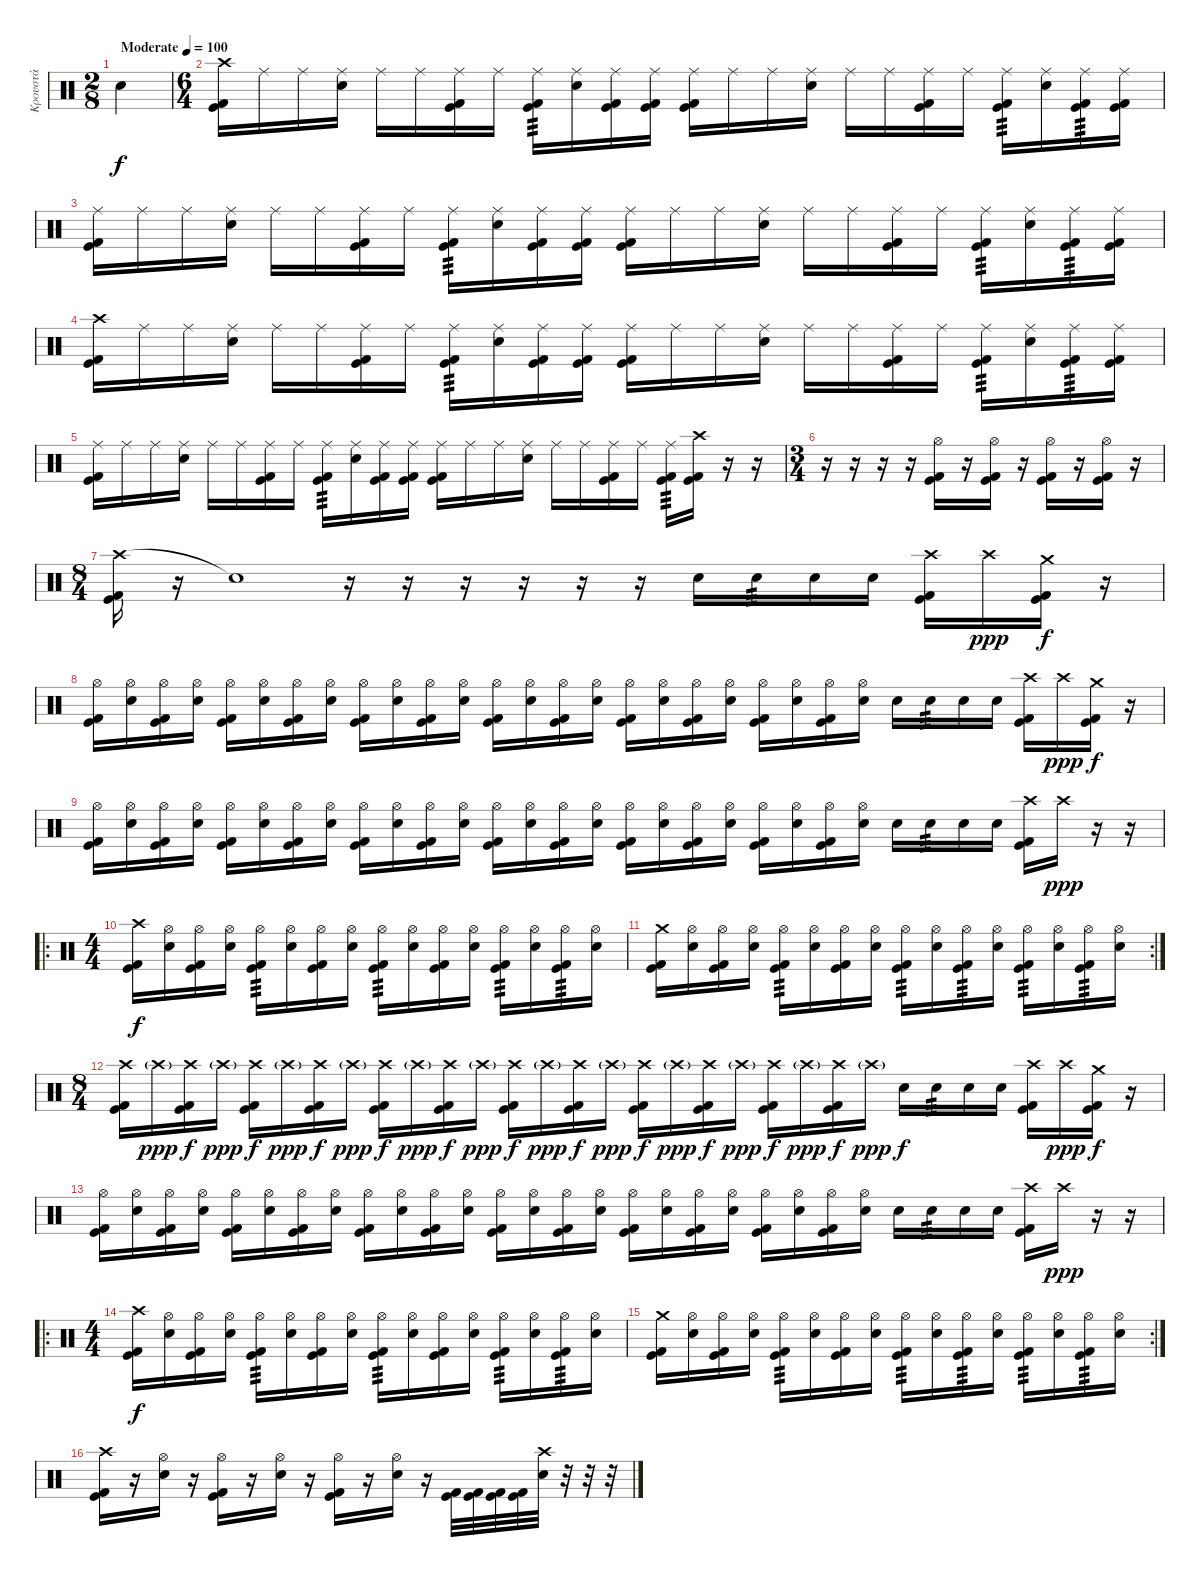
\track ("Κρουστά" "Κρουστά") {instrument percussion}
\staff {score}
\articulation defaults
\ts (2 8)
\tempo (100 "Moderate")
\clef neutral
\ks c "Snare (hit) 2".4{dy f}
|
\ts (6 4)
("Crash high (hit)" "Kick (hit)" "Kick (hit) 2").16 "Ride (middle)".16 "Ride (middle)".16 ("Ride (middle)" "Snare (hit) 2").16 "Ride (middle)".16 "Ride (middle)".16 ("Ride (middle)" "Kick (hit)" "Kick (hit) 2").16 "Ride (middle)".16 ("Ride (middle)" "Kick (hit)" "Kick (hit) 2").16{tp 3} ("Ride (middle)" "Snare (hit) 2").16 ("Ride (middle)" "Kick (hit)" "Kick (hit) 2").16 ("Ride (middle)" "Kick (hit)" "Kick (hit) 2").16 ("Ride (middle)" "Kick (hit)" "Kick (hit) 2").16 "Ride (middle)".16 "Ride (middle)".16 ("Ride (middle)" "Snare (hit) 2").16 "Ride (middle)".16 "Ride (middle)".16 ("Ride (middle)" "Kick (hit)" "Kick (hit) 2").16 "Ride (middle)".16 ("Ride (middle)" "Kick (hit)" "Kick (hit) 2").16{tp 3} ("Ride (middle)" "Snare (hit) 2").16 ("Ride (middle)" "Kick (hit)" "Kick (hit) 2").16{tp 3} ("Ride (middle)" "Kick (hit)" "Kick (hit) 2").16 |
("Ride (middle)" "Kick (hit)" "Kick (hit) 2").16 "Ride (middle)".16 "Ride (middle)".16 ("Ride (middle)" "Snare (hit) 2").16 "Ride (middle)".16 "Ride (middle)".16 ("Ride (middle)" "Kick (hit)" "Kick (hit) 2").16 "Ride (middle)".16 ("Ride (middle)" "Kick (hit)" "Kick (hit) 2").16{tp 3} ("Ride (middle)" "Snare (hit) 2").16 ("Ride (middle)" "Kick (hit)" "Kick (hit) 2").16 ("Ride (middle)" "Kick (hit)" "Kick (hit) 2").16 ("Ride (middle)" "Kick (hit)" "Kick (hit) 2").16 "Ride (middle)".16 "Ride (middle)".16 ("Ride (middle)" "Snare (hit) 2").16 "Ride (middle)".16 "Ride (middle)".16 ("Ride (middle)" "Kick (hit)" "Kick (hit) 2").16 "Ride (middle)".16 ("Ride (middle)" "Kick (hit)" "Kick (hit) 2").16{tp 3} ("Ride (middle)" "Snare (hit) 2").16 ("Ride (middle)" "Kick (hit)" "Kick (hit) 2").16{tp 3} ("Ride (middle)" "Kick (hit)" "Kick (hit) 2").16 |
("Crash high (hit)" "Kick (hit)" "Kick (hit) 2").16 "Ride (middle)".16 "Ride (middle)".16 ("Ride (middle)" "Snare (hit) 2").16 "Ride (middle)".16 "Ride (middle)".16 ("Ride (middle)" "Kick (hit)" "Kick (hit) 2").16 "Ride (middle)".16 ("Ride (middle)" "Kick (hit)" "Kick (hit) 2").16{tp 3} ("Ride (middle)" "Snare (hit) 2").16 ("Ride (middle)" "Kick (hit)" "Kick (hit) 2").16 ("Ride (middle)" "Kick (hit)" "Kick (hit) 2").16 ("Ride (middle)" "Kick (hit)" "Kick (hit) 2").16 "Ride (middle)".16 "Ride (middle)".16 ("Ride (middle)" "Snare (hit) 2").16 "Ride (middle)".16 "Ride (middle)".16 ("Ride (middle)" "Kick (hit)" "Kick (hit) 2").16 "Ride (middle)".16 ("Ride (middle)" "Kick (hit)" "Kick (hit) 2").16{tp 3} ("Ride (middle)" "Snare (hit) 2").16 ("Ride (middle)" "Kick (hit)" "Kick (hit) 2").16{tp 3} ("Ride (middle)" "Kick (hit)" "Kick (hit) 2").16 |
("Ride (middle)" "Kick (hit)" "Kick (hit) 2").16 "Ride (middle)".16 "Ride (middle)".16 ("Ride (middle)" "Snare (hit) 2").16 "Ride (middle)".16 "Ride (middle)".16 ("Ride (middle)" "Kick (hit)" "Kick (hit) 2").16 "Ride (middle)".16 ("Ride (middle)" "Kick (hit)" "Kick (hit) 2").16{tp 3} ("Ride (middle)" "Snare (hit) 2").16 ("Ride (middle)" "Kick (hit)" "Kick (hit) 2").16 ("Ride (middle)" "Kick (hit)" "Kick (hit) 2").16 ("Ride (middle)" "Kick (hit)" "Kick (hit) 2").16 "Ride (middle)".16 "Ride (middle)".16 ("Ride (middle)" "Snare (hit) 2").16 "Ride (middle)".16 "Ride (middle)".16 ("Ride (middle)" "Kick (hit)" "Kick (hit) 2").16 "Ride (middle)".16 ("Ride (middle)" "Kick (hit)" "Kick (hit) 2").16{tp 3} ("Crash high (hit)" "Kick (hit)" "Kick (hit) 2").16 r.16 r.16 |
\ts (3 4)
r.16 r.16 r.16 r.16 ("Hi-Hat (open)" "Kick (hit)" "Kick (hit) 2").16 r.16 ("Hi-Hat (open)" "Kick (hit)" "Kick (hit) 2").16 r.16 ("Hi-Hat (open)" "Kick (hit)" "Kick (hit) 2").16 r.16 ("Hi-Hat (open)" "Kick (hit)" "Kick (hit) 2").16 r.16 |
\ts (8 4)
("Crash high (hit)" "Kick (hit)" "Kick (hit) 2").16 r.16 "Snare (hit)"{t}.1 r.16 r.16 r.16 r.16 r.16 r.16 "Snare (hit) 2".16 "Snare (hit) 2".16{tp 3} "Snare (hit) 2".16 "Snare (hit) 2".16 ("Crash high (hit)" "Kick (hit)" "Kick (hit) 2").16 "Crash high (hit)".16{dy ppp} ("Crash medium (hit)" "Kick (hit)" "Kick (hit) 2").16{dy f} r.16 |
("Hi-Hat (open)" "Kick (hit)" "Kick (hit) 2").16 ("Hi-Hat (open)" "Snare (hit) 2").16 ("Hi-Hat (open)" "Kick (hit)" "Kick (hit) 2").16 ("Hi-Hat (open)" "Snare (hit) 2").16 ("Hi-Hat (open)" "Kick (hit)" "Kick (hit) 2").16 ("Hi-Hat (open)" "Snare (hit) 2").16 ("Hi-Hat (open)" "Kick (hit)" "Kick (hit) 2").16 ("Hi-Hat (open)" "Snare (hit) 2").16 ("Hi-Hat (open)" "Kick (hit)" "Kick (hit) 2").16 ("Hi-Hat (open)" "Snare (hit) 2").16 ("Hi-Hat (open)" "Kick (hit)" "Kick (hit) 2").16 ("Hi-Hat (open)" "Snare (hit) 2").16 ("Hi-Hat (open)" "Kick (hit)" "Kick (hit) 2").16 ("Hi-Hat (open)" "Snare (hit) 2").16 ("Hi-Hat (open)" "Kick (hit)" "Kick (hit) 2").16 ("Hi-Hat (open)" "Snare (hit) 2").16 ("Hi-Hat (open)" "Kick (hit)" "Kick (hit) 2").16 ("Hi-Hat (open)" "Snare (hit) 2").16 ("Hi-Hat (open)" "Kick (hit)" "Kick (hit) 2").16 ("Hi-Hat (open)" "Snare (hit) 2").16 ("Hi-Hat (open)" "Kick (hit)" "Kick (hit) 2").16 ("Hi-Hat (open)" "Snare (hit) 2").16 ("Hi-Hat (open)" "Kick (hit)" "Kick (hit) 2").16 ("Hi-Hat (open)" "Snare (hit) 2").16 "Snare (hit) 2".16 "Snare (hit) 2".16{tp 3} "Snare (hit) 2".16 "Snare (hit) 2".16 ("Crash high (hit)" "Kick (hit)" "Kick (hit) 2").16 "Crash high (hit)".16{dy ppp} ("Crash medium (hit)" "Kick (hit)" "Kick (hit) 2").16{dy f} r.16 |
("Hi-Hat (open)" "Kick (hit)" "Kick (hit) 2").16 ("Hi-Hat (open)" "Snare (hit) 2").16 ("Hi-Hat (open)" "Kick (hit)" "Kick (hit) 2").16 ("Hi-Hat (open)" "Snare (hit) 2").16 ("Hi-Hat (open)" "Kick (hit)" "Kick (hit) 2").16 ("Hi-Hat (open)" "Snare (hit) 2").16 ("Hi-Hat (open)" "Kick (hit)" "Kick (hit) 2").16 ("Hi-Hat (open)" "Snare (hit) 2").16 ("Hi-Hat (open)" "Kick (hit)" "Kick (hit) 2").16 ("Hi-Hat (open)" "Snare (hit) 2").16 ("Hi-Hat (open)" "Kick (hit)" "Kick (hit) 2").16 ("Hi-Hat (open)" "Snare (hit) 2").16 ("Hi-Hat (open)" "Kick (hit)" "Kick (hit) 2").16 ("Hi-Hat (open)" "Snare (hit) 2").16 ("Hi-Hat (open)" "Kick (hit)" "Kick (hit) 2").16 ("Hi-Hat (open)" "Snare (hit) 2").16 ("Hi-Hat (open)" "Kick (hit)" "Kick (hit) 2").16 ("Hi-Hat (open)" "Snare (hit) 2").16 ("Hi-Hat (open)" "Kick (hit)" "Kick (hit) 2").16 ("Hi-Hat (open)" "Snare (hit) 2").16 ("Hi-Hat (open)" "Kick (hit)" "Kick (hit) 2").16 ("Hi-Hat (open)" "Snare (hit) 2").16 ("Hi-Hat (open)" "Kick (hit)" "Kick (hit) 2").16 ("Hi-Hat (open)" "Snare (hit) 2").16 "Snare (hit) 2".16 "Snare (hit) 2".16{tp 3} "Snare (hit) 2".16 "Snare (hit) 2".16 ("Crash high (hit)" "Kick (hit)" "Kick (hit) 2").16 "Crash high (hit)".16{dy ppp} r.16 r.16 |
\ro
\ts (4 4)
("Crash high (hit)" "Kick (hit)" "Kick (hit) 2").16{dy f} ("Hi-Hat (open)" "Snare (hit) 2").16 ("Hi-Hat (open)" "Kick (hit)" "Kick (hit) 2").16 ("Hi-Hat (open)" "Snare (hit) 2").16 ("Hi-Hat (open)" "Kick (hit)" "Kick (hit) 2").16{tp 3} ("Hi-Hat (open)" "Snare (hit) 2").16 ("Hi-Hat (open)" "Kick (hit)" "Kick (hit) 2").16 ("Hi-Hat (open)" "Snare (hit) 2").16 ("Hi-Hat (open)" "Kick (hit)" "Kick (hit) 2").16{tp 3} ("Hi-Hat (open)" "Snare (hit) 2").16 ("Hi-Hat (open)" "Kick (hit)" "Kick (hit) 2").16 ("Hi-Hat (open)" "Snare (hit) 2").16 ("Hi-Hat (open)" "Kick (hit)" "Kick (hit) 2").16{tp 3} ("Hi-Hat (open)" "Snare (hit) 2").16 ("Hi-Hat (open)" "Kick (hit)" "Kick (hit) 2").16{tp 3} ("Hi-Hat (open)" "Snare (hit) 2").16 |
\rc 2
("Crash medium (hit)" "Kick (hit)" "Kick (hit) 2").16 ("Hi-Hat (open)" "Snare (hit) 2").16 ("Hi-Hat (open)" "Kick (hit)" "Kick (hit) 2").16 ("Hi-Hat (open)" "Snare (hit) 2").16 ("Hi-Hat (open)" "Kick (hit)" "Kick (hit) 2").16{tp 3} ("Hi-Hat (open)" "Snare (hit) 2").16 ("Hi-Hat (open)" "Kick (hit)" "Kick (hit) 2").16 ("Hi-Hat (open)" "Snare (hit) 2").16 ("Hi-Hat (open)" "Kick (hit)" "Kick (hit) 2").16{tp 3} ("Hi-Hat (open)" "Snare (hit) 2").16 ("Hi-Hat (open)" "Kick (hit)" "Kick (hit) 2").16{tp 3} ("Hi-Hat (open)" "Snare (hit) 2").16 ("Hi-Hat (open)" "Kick (hit)" "Kick (hit) 2").16{tp 3} ("Hi-Hat (open)" "Snare (hit) 2").16 ("Hi-Hat (open)" "Kick (hit)" "Kick (hit) 2").16{tp 3} ("Hi-Hat (open)" "Snare (hit) 2").16 |
\ts (8 4)
("Crash high (hit)" "Kick (hit)" "Kick (hit) 2").16 "Crash high (hit)"{g}.16{dy ppp} ("Crash high (hit)" "Kick (hit)" "Kick (hit) 2").16{dy f} "Crash high (hit)"{g}.16{dy ppp} ("Crash high (hit)" "Kick (hit)" "Kick (hit) 2").16{dy f} "Crash high (hit)"{g}.16{dy ppp} ("Crash high (hit)" "Kick (hit)" "Kick (hit) 2").16{dy f} "Crash high (hit)"{g}.16{dy ppp} ("Crash high (hit)" "Kick (hit)" "Kick (hit) 2").16{dy f} "Crash high (hit)"{g}.16{dy ppp} ("Crash high (hit)" "Kick (hit)" "Kick (hit) 2").16{dy f} "Crash high (hit)"{g}.16{dy ppp} ("Crash high (hit)" "Kick (hit)" "Kick (hit) 2").16{dy f} "Crash high (hit)"{g}.16{dy ppp} ("Crash high (hit)" "Kick (hit)" "Kick (hit) 2").16{dy f} "Crash high (hit)"{g}.16{dy ppp} ("Crash high (hit)" "Kick (hit)" "Kick (hit) 2").16{dy f} "Crash high (hit)"{g}.16{dy ppp} ("Crash high (hit)" "Kick (hit)" "Kick (hit) 2").16{dy f} "Crash high (hit)"{g}.16{dy ppp} ("Crash high (hit)" "Kick (hit)" "Kick (hit) 2").16{dy f} "Crash high (hit)"{g}.16{dy ppp} ("Crash high (hit)" "Kick (hit)" "Kick (hit) 2").16{dy f} "Crash high (hit)"{g}.16{dy ppp} "Snare (hit) 2".16{dy f} "Snare (hit) 2".16{tp 3} "Snare (hit) 2".16 "Snare (hit) 2".16 ("Crash high (hit)" "Kick (hit)" "Kick (hit) 2").16 "Crash high (hit)".16{dy ppp} ("Crash medium (hit)" "Kick (hit)" "Kick (hit) 2").16{dy f} r.16 |
("Hi-Hat (open)" "Kick (hit)" "Kick (hit) 2").16 ("Hi-Hat (open)" "Snare (hit) 2").16 ("Hi-Hat (open)" "Kick (hit)" "Kick (hit) 2").16 ("Hi-Hat (open)" "Snare (hit) 2").16 ("Hi-Hat (open)" "Kick (hit)" "Kick (hit) 2").16 ("Hi-Hat (open)" "Snare (hit) 2").16 ("Hi-Hat (open)" "Kick (hit)" "Kick (hit) 2").16 ("Hi-Hat (open)" "Snare (hit) 2").16 ("Hi-Hat (open)" "Kick (hit)" "Kick (hit) 2").16 ("Hi-Hat (open)" "Snare (hit) 2").16 ("Hi-Hat (open)" "Kick (hit)" "Kick (hit) 2").16 ("Hi-Hat (open)" "Snare (hit) 2").16 ("Hi-Hat (open)" "Kick (hit)" "Kick (hit) 2").16 ("Hi-Hat (open)" "Snare (hit) 2").16 ("Hi-Hat (open)" "Kick (hit)" "Kick (hit) 2").16 ("Hi-Hat (open)" "Snare (hit) 2").16 ("Hi-Hat (open)" "Kick (hit)" "Kick (hit) 2").16 ("Hi-Hat (open)" "Snare (hit) 2").16 ("Hi-Hat (open)" "Kick (hit)" "Kick (hit) 2").16 ("Hi-Hat (open)" "Snare (hit) 2").16 ("Hi-Hat (open)" "Kick (hit)" "Kick (hit) 2").16 ("Hi-Hat (open)" "Snare (hit) 2").16 ("Hi-Hat (open)" "Kick (hit)" "Kick (hit) 2").16 ("Hi-Hat (open)" "Snare (hit) 2").16 "Snare (hit) 2".16 "Snare (hit) 2".16{tp 3} "Snare (hit) 2".16 "Snare (hit) 2".16 ("Crash high (hit)" "Kick (hit)" "Kick (hit) 2").16 "Crash high (hit)".16{dy ppp} r.16 r.16 |
\ro
\ts (4 4)
("Crash high (hit)" "Kick (hit)" "Kick (hit) 2").16{dy f} ("Hi-Hat (open)" "Snare (hit) 2").16 ("Hi-Hat (open)" "Kick (hit)" "Kick (hit) 2").16 ("Hi-Hat (open)" "Snare (hit) 2").16 ("Hi-Hat (open)" "Kick (hit)" "Kick (hit) 2").16{tp 3} ("Hi-Hat (open)" "Snare (hit) 2").16 ("Hi-Hat (open)" "Kick (hit)" "Kick (hit) 2").16 ("Hi-Hat (open)" "Snare (hit) 2").16 ("Hi-Hat (open)" "Kick (hit)" "Kick (hit) 2").16{tp 3} ("Hi-Hat (open)" "Snare (hit) 2").16 ("Hi-Hat (open)" "Kick (hit)" "Kick (hit) 2").16 ("Hi-Hat (open)" "Snare (hit) 2").16 ("Hi-Hat (open)" "Kick (hit)" "Kick (hit) 2").16{tp 3} ("Hi-Hat (open)" "Snare (hit) 2").16 ("Hi-Hat (open)" "Kick (hit)" "Kick (hit) 2").16{tp 3} ("Hi-Hat (open)" "Snare (hit) 2").16 |
\rc 2
("Crash medium (hit)" "Kick (hit)" "Kick (hit) 2").16 ("Hi-Hat (open)" "Snare (hit) 2").16 ("Hi-Hat (open)" "Kick (hit)" "Kick (hit) 2").16 ("Hi-Hat (open)" "Snare (hit) 2").16 ("Hi-Hat (open)" "Kick (hit)" "Kick (hit) 2").16{tp 3} ("Hi-Hat (open)" "Snare (hit) 2").16 ("Hi-Hat (open)" "Kick (hit)" "Kick (hit) 2").16 ("Hi-Hat (open)" "Snare (hit) 2").16 ("Hi-Hat (open)" "Kick (hit)" "Kick (hit) 2").16{tp 3} ("Hi-Hat (open)" "Snare (hit) 2").16 ("Hi-Hat (open)" "Kick (hit)" "Kick (hit) 2").16{tp 3} ("Hi-Hat (open)" "Snare (hit) 2").16 ("Hi-Hat (open)" "Kick (hit)" "Kick (hit) 2").16{tp 3} ("Hi-Hat (open)" "Snare (hit) 2").16 ("Hi-Hat (open)" "Kick (hit)" "Kick (hit) 2").16{tp 3} ("Hi-Hat (open)" "Snare (hit) 2").16 |
("Crash high (hit)" "Kick (hit)" "Kick (hit) 2").16 r.16 ("Hi-Hat (open)" "Snare (hit) 2").16 r.16 ("Hi-Hat (open)" "Kick (hit)" "Kick (hit) 2").16 r.16 ("Hi-Hat (open)" "Snare (hit) 2").16 r.16 ("Hi-Hat (open)" "Kick (hit)" "Kick (hit) 2").16 r.16 ("Hi-Hat (open)" "Snare (hit) 2").16 r.16 ("Kick (hit)" "Kick (hit) 2").32 ("Kick (hit)" "Kick (hit) 2").32 ("Kick (hit)" "Kick (hit) 2").32 ("Kick (hit)" "Kick (hit) 2").32 ("Crash high (hit)" "Snare (hit) 2").32 r.32 r.32 r.32
